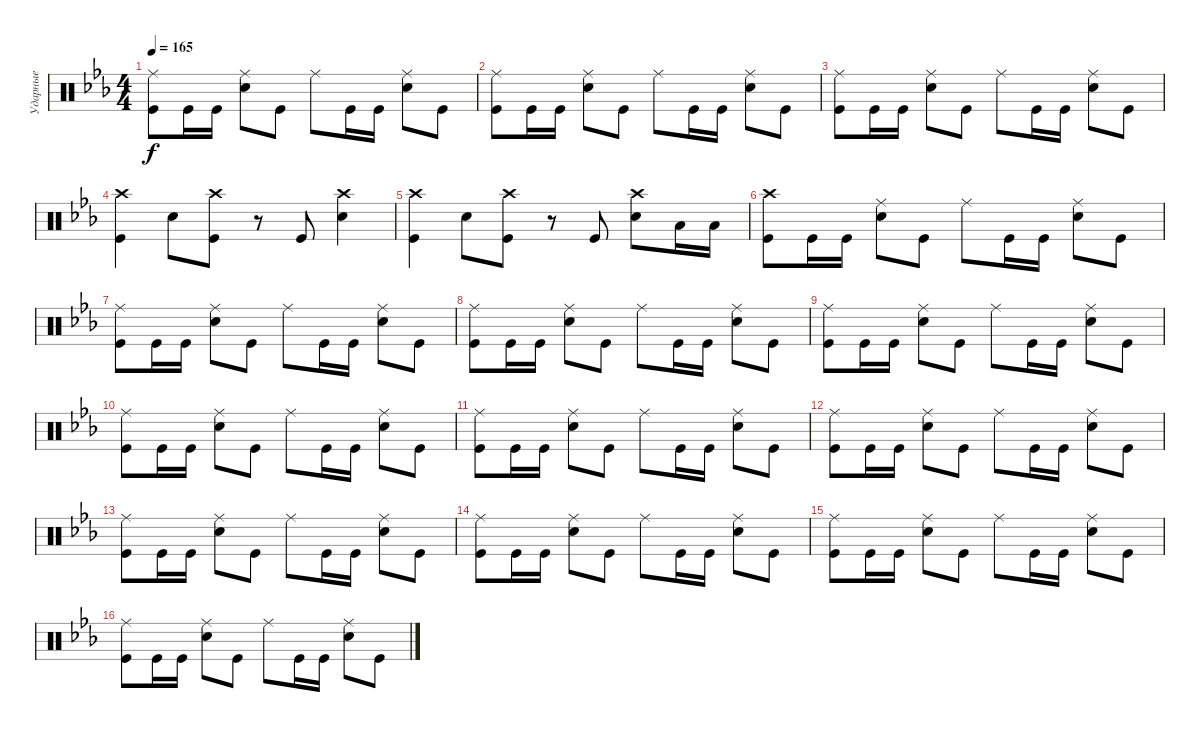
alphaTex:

\track ("Ударные" "Ударные") {instrument percussion}
\staff {score}
\articulation defaults
\ts (4 4)
\tempo 165
\clef neutral
\ks cminor
("Kick (hit)" "Ride (middle)").8{dy f} "Kick (hit)".16 "Kick (hit)".16 ("Snare (hit) 2" "Ride (middle)").8 "Kick (hit)".8 "Ride (middle)".8 "Kick (hit)".16 "Kick (hit)".16 ("Snare (hit) 2" "Ride (middle)").8 "Kick (hit)".8 |
("Kick (hit)" "Ride (middle)").8 "Kick (hit)".16 "Kick (hit)".16 ("Snare (hit) 2" "Ride (middle)").8 "Kick (hit)".8 "Ride (middle)".8 "Kick (hit)".16 "Kick (hit)".16 ("Snare (hit) 2" "Ride (middle)").8 "Kick (hit)".8 |
("Kick (hit)" "Ride (middle)").8 "Kick (hit)".16 "Kick (hit)".16 ("Snare (hit) 2" "Ride (middle)").8 "Kick (hit)".8 "Ride (middle)".8 "Kick (hit)".16 "Kick (hit)".16 ("Snare (hit) 2" "Ride (middle)").8 "Kick (hit)".8 |
("Kick (hit)" "Crash high (hit)").4 "Snare (hit) 2".8 ("Kick (hit)" "Crash high (hit)").8 r.8 "Kick (hit)".8 ("Snare (hit) 2" "Crash high (hit)").4 |
("Kick (hit)" "Crash high (hit)").4 "Snare (hit) 2".8 ("Kick (hit)" "Crash high (hit)").8 r.8 "Kick (hit)".8 ("Snare (hit) 2" "Crash high (hit)").8 "Low Tom (hit)".16 "Low Tom (hit)".16 |
("Kick (hit)" "Crash high (hit)").8 "Kick (hit)".16 "Kick (hit)".16 ("Snare (hit) 2" "Ride (middle)").8 "Kick (hit)".8 "Ride (middle)".8 "Kick (hit)".16 "Kick (hit)".16 ("Snare (hit) 2" "Ride (middle)").8 "Kick (hit)".8 |
("Kick (hit)" "Ride (middle)").8 "Kick (hit)".16 "Kick (hit)".16 ("Snare (hit) 2" "Ride (middle)").8 "Kick (hit)".8 "Ride (middle)".8 "Kick (hit)".16 "Kick (hit)".16 ("Snare (hit) 2" "Ride (middle)").8 "Kick (hit)".8 |
("Kick (hit)" "Ride (middle)").8 "Kick (hit)".16 "Kick (hit)".16 ("Snare (hit) 2" "Ride (middle)").8 "Kick (hit)".8 "Ride (middle)".8 "Kick (hit)".16 "Kick (hit)".16 ("Snare (hit) 2" "Ride (middle)").8 "Kick (hit)".8 |
("Kick (hit)" "Ride (middle)").8 "Kick (hit)".16 "Kick (hit)".16 ("Snare (hit) 2" "Ride (middle)").8 "Kick (hit)".8 "Ride (middle)".8 "Kick (hit)".16 "Kick (hit)".16 ("Snare (hit) 2" "Ride (middle)").8 "Kick (hit)".8 |
("Kick (hit)" "Ride (middle)").8 "Kick (hit)".16 "Kick (hit)".16 ("Snare (hit) 2" "Ride (middle)").8 "Kick (hit)".8 "Ride (middle)".8 "Kick (hit)".16 "Kick (hit)".16 ("Snare (hit) 2" "Ride (middle)").8 "Kick (hit)".8 |
("Kick (hit)" "Ride (middle)").8 "Kick (hit)".16 "Kick (hit)".16 ("Snare (hit) 2" "Ride (middle)").8 "Kick (hit)".8 "Ride (middle)".8 "Kick (hit)".16 "Kick (hit)".16 ("Snare (hit) 2" "Ride (middle)").8 "Kick (hit)".8 |
("Kick (hit)" "Ride (middle)").8 "Kick (hit)".16 "Kick (hit)".16 ("Snare (hit) 2" "Ride (middle)").8 "Kick (hit)".8 "Ride (middle)".8 "Kick (hit)".16 "Kick (hit)".16 ("Snare (hit) 2" "Ride (middle)").8 "Kick (hit)".8 |
("Kick (hit)" "Ride (middle)").8 "Kick (hit)".16 "Kick (hit)".16 ("Snare (hit) 2" "Ride (middle)").8 "Kick (hit)".8 "Ride (middle)".8 "Kick (hit)".16 "Kick (hit)".16 ("Snare (hit) 2" "Ride (middle)").8 "Kick (hit)".8 |
("Kick (hit)" "Ride (middle)").8 "Kick (hit)".16 "Kick (hit)".16 ("Snare (hit) 2" "Ride (middle)").8 "Kick (hit)".8 "Ride (middle)".8 "Kick (hit)".16 "Kick (hit)".16 ("Snare (hit) 2" "Ride (middle)").8 "Kick (hit)".8 |
("Kick (hit)" "Ride (middle)").8 "Kick (hit)".16 "Kick (hit)".16 ("Snare (hit) 2" "Ride (middle)").8 "Kick (hit)".8 "Ride (middle)".8 "Kick (hit)".16 "Kick (hit)".16 ("Snare (hit) 2" "Ride (middle)").8 "Kick (hit)".8 |
("Kick (hit)" "Ride (middle)").8 "Kick (hit)".16 "Kick (hit)".16 ("Snare (hit) 2" "Ride (middle)").8 "Kick (hit)".8 "Ride (middle)".8 "Kick (hit)".16 "Kick (hit)".16 ("Snare (hit) 2" "Ride (middle)").8 "Kick (hit)".8
